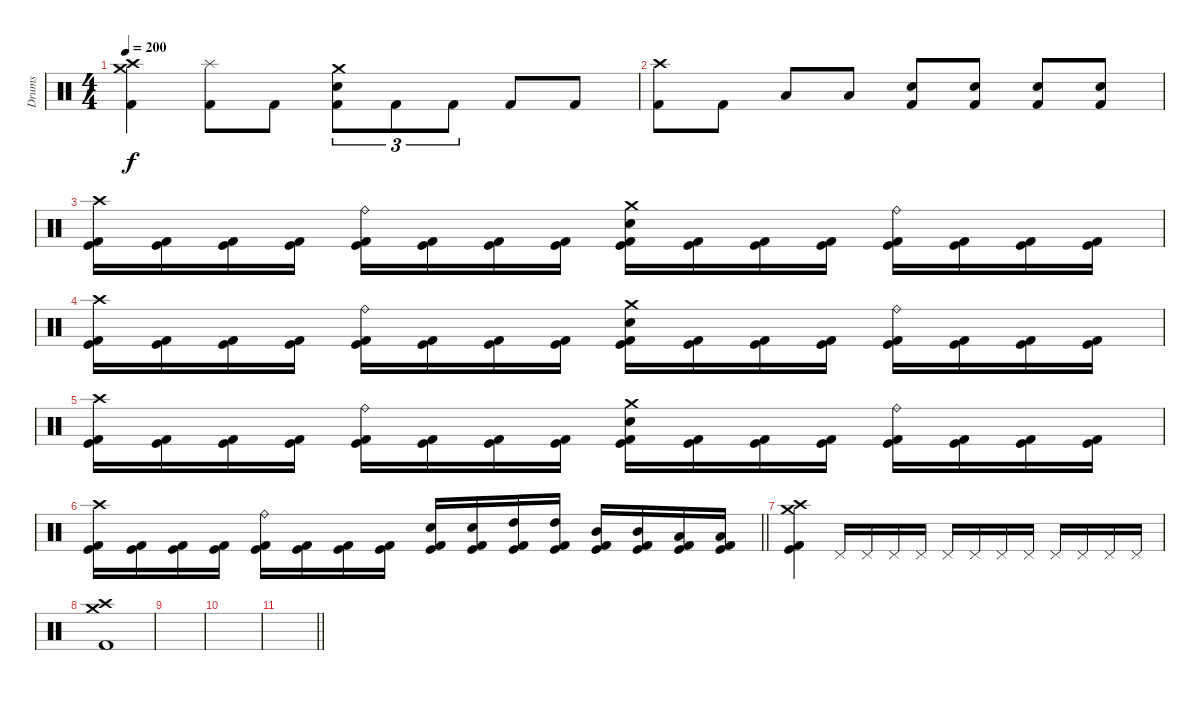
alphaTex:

\track ("Drums" "Drums") {instrument percussion}
\staff {score}
\articulation defaults
\ts (4 4)
\tempo 200
\clef neutral
\ks c
("Crash high (hit)" "Crash medium (hit)" "Kick (hit) 2").4{dy f} ("Splash (hit)" "Kick (hit) 2").8 "Kick (hit) 2".8 ("Crash medium (hit)" "Snare (hit) 2" "Kick (hit) 2").8{tu (3 2)} "Kick (hit) 2".8{tu (3 2)} "Kick (hit) 2".8{tu (3 2)} "Kick (hit) 2".8 "Kick (hit) 2".8 |
("Crash high (hit)" "Kick (hit) 2").8 "Kick (hit) 2".8 "Low Tom (hit)".8 "Low Tom (hit)".8 ("Snare (hit) 2" "Kick (hit) 2").8 ("Snare (hit) 2" "Kick (hit) 2").8 ("Snare (hit) 2" "Kick (hit) 2").8 ("Snare (hit) 2" "Kick (hit) 2").8 |
("Crash high (hit)" "Kick (hit)" "Kick (hit) 2").16 ("Kick (hit)" "Kick (hit) 2").16 ("Kick (hit)" "Kick (hit) 2").16 ("Kick (hit)" "Kick (hit) 2").16 ("Ride (bell)" "Kick (hit)" "Kick (hit) 2").16 ("Kick (hit)" "Kick (hit) 2").16 ("Kick (hit)" "Kick (hit) 2").16 ("Kick (hit)" "Kick (hit) 2").16 ("Crash medium (hit)" "Kick (hit)" "Electric Snare (hit)" "Kick (hit) 2").16 ("Kick (hit)" "Kick (hit) 2").16 ("Kick (hit)" "Kick (hit) 2").16 ("Kick (hit)" "Kick (hit) 2").16 ("Ride (bell)" "Kick (hit)" "Kick (hit) 2").16 ("Kick (hit)" "Kick (hit) 2").16 ("Kick (hit)" "Kick (hit) 2").16 ("Kick (hit)" "Kick (hit) 2").16 |
("Crash high (hit)" "Kick (hit)" "Kick (hit) 2").16 ("Kick (hit)" "Kick (hit) 2").16 ("Kick (hit)" "Kick (hit) 2").16 ("Kick (hit)" "Kick (hit) 2").16 ("Ride (bell)" "Kick (hit)" "Kick (hit) 2").16 ("Kick (hit)" "Kick (hit) 2").16 ("Kick (hit)" "Kick (hit) 2").16 ("Kick (hit)" "Kick (hit) 2").16 ("Crash medium (hit)" "Kick (hit)" "Electric Snare (hit)" "Kick (hit) 2").16 ("Kick (hit)" "Kick (hit) 2").16 ("Kick (hit)" "Kick (hit) 2").16 ("Kick (hit)" "Kick (hit) 2").16 ("Ride (bell)" "Kick (hit)" "Kick (hit) 2").16 ("Kick (hit)" "Kick (hit) 2").16 ("Kick (hit)" "Kick (hit) 2").16 ("Kick (hit)" "Kick (hit) 2").16 |
("Crash high (hit)" "Kick (hit)" "Kick (hit) 2").16 ("Kick (hit)" "Kick (hit) 2").16 ("Kick (hit)" "Kick (hit) 2").16 ("Kick (hit)" "Kick (hit) 2").16 ("Ride (bell)" "Kick (hit)" "Kick (hit) 2").16 ("Kick (hit)" "Kick (hit) 2").16 ("Kick (hit)" "Kick (hit) 2").16 ("Kick (hit)" "Kick (hit) 2").16 ("Crash medium (hit)" "Kick (hit)" "Electric Snare (hit)" "Kick (hit) 2").16 ("Kick (hit)" "Kick (hit) 2").16 ("Kick (hit)" "Kick (hit) 2").16 ("Kick (hit)" "Kick (hit) 2").16 ("Ride (bell)" "Kick (hit)" "Kick (hit) 2").16 ("Kick (hit)" "Kick (hit) 2").16 ("Kick (hit)" "Kick (hit) 2").16 ("Kick (hit)" "Kick (hit) 2").16 |
\barLineRight lightlight
("Crash high (hit)" "Kick (hit)" "Kick (hit) 2").16 ("Kick (hit)" "Kick (hit) 2").16 ("Kick (hit)" "Kick (hit) 2").16 ("Kick (hit)" "Kick (hit) 2").16 ("Ride (bell)" "Kick (hit)" "Kick (hit) 2").16 ("Kick (hit)" "Kick (hit) 2").16 ("Kick (hit)" "Kick (hit) 2").16 ("Kick (hit)" "Kick (hit) 2").16 ("Kick (hit)" "Electric Snare (hit)" "Kick (hit) 2").16 ("Kick (hit)" "Electric Snare (hit)" "Kick (hit) 2").16 ("High Tom (hit)" "Kick (hit)" "Kick (hit) 2").16 ("High Tom (hit)" "Kick (hit)" "Kick (hit) 2").16 ("Mid Tom (hit)" "Kick (hit)" "Kick (hit) 2").16 ("Mid Tom (hit)" "Kick (hit)" "Kick (hit) 2").16 ("Low Tom (hit)" "Kick (hit)" "Kick (hit) 2").16 ("Low Tom (hit)" "Kick (hit)" "Kick (hit) 2").16 |
("Crash medium (hit)" "Crash high (hit)" "Kick (hit)" "Kick (hit) 2").4 "Pedal Hi-Hat (hit)".16 "Pedal Hi-Hat (hit)".16 "Pedal Hi-Hat (hit)".16 "Pedal Hi-Hat (hit)".16 "Pedal Hi-Hat (hit)".16 "Pedal Hi-Hat (hit)".16 "Pedal Hi-Hat (hit)".16 "Pedal Hi-Hat (hit)".16 "Pedal Hi-Hat (hit)".16 "Pedal Hi-Hat (hit)".16 "Pedal Hi-Hat (hit)".16 "Pedal Hi-Hat (hit)".16 |
("Crash medium (hit)" "Crash high (hit)" "Kick (hit) 2").1 |
|
|
\barLineRight lightlight
